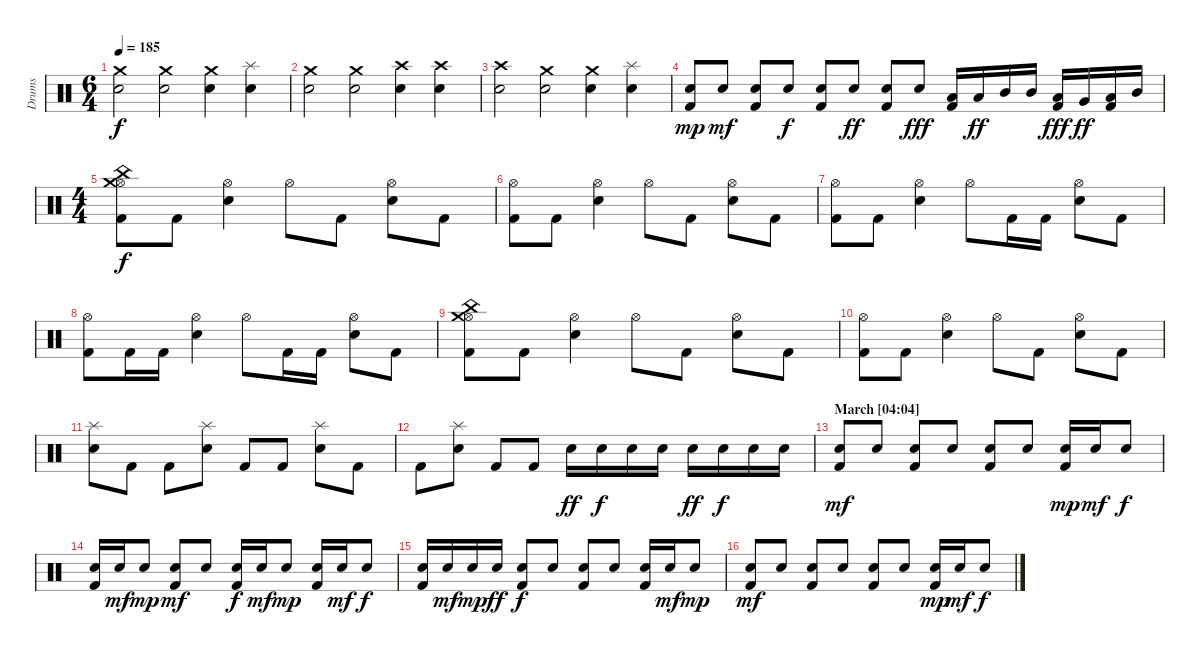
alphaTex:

\track ("Drums" "Drums") {instrument percussion}
\staff {score}
\articulation defaults
\ts (6 4)
\section ("" "")
\tempo 185
\clef neutral
\ks c
("Crash medium (hit)" "Electric Snare (hit)").2{dy f} ("Crash medium (hit)" "Electric Snare (hit)").2 ("Crash medium (hit)" "Electric Snare (hit)").4 ("Splash (hit)" "Electric Snare (hit)").4 |
("Crash medium (hit)" "Electric Snare (hit)").2 ("Crash medium (hit)" "Electric Snare (hit)").2 ("Crash high (hit)" "Electric Snare (hit)").4 ("Crash high (hit)" "Electric Snare (hit)").4 |
("Crash high (hit)" "Electric Snare (hit)").2 ("Crash medium (hit)" "Electric Snare (hit)").2 ("Crash medium (hit)" "Electric Snare (hit)").4 ("Splash (hit)" "Electric Snare (hit)").4 |
("Electric Snare (hit)" "Kick (hit) 2").8{dy mp} "Electric Snare (hit)".8{dy mf} ("Electric Snare (hit)" "Kick (hit) 2").8 "Electric Snare (hit)".8{dy f} ("Electric Snare (hit)" "Kick (hit) 2").8 "Electric Snare (hit)".8{dy ff} ("Electric Snare (hit)" "Kick (hit) 2").8 "Electric Snare (hit)".8{dy fff} ("Low Tom (hit)" "Kick (hit) 2").16 "Low Tom (hit)".16{dy ff} "Mid Tom (hit)".16 "Mid Tom (hit)".16 ("Low Tom (hit)" "Kick (hit) 2").16{dy fff} "Very Low Tom (hit)".16{dy ff} ("Low Tom (hit)" "Kick (hit) 2").16 "Mid Tom (hit)".16 |
\ts (4 4)
\section ("" "")
("Hi-Hat (open)" "Crash medium (hit)" "China (hit)" "Kick (hit) 2").8{dy f} "Kick (hit) 2".8 ("Hi-Hat (open)" "Electric Snare (hit)").4 "Hi-Hat (open)".8 "Kick (hit) 2".8 ("Hi-Hat (open)" "Electric Snare (hit)").8 "Kick (hit) 2".8 |
("Hi-Hat (open)" "Kick (hit) 2").8 "Kick (hit) 2".8 ("Hi-Hat (open)" "Electric Snare (hit)").4 "Hi-Hat (open)".8 "Kick (hit) 2".8 ("Hi-Hat (open)" "Electric Snare (hit)").8 "Kick (hit) 2".8 |
("Hi-Hat (open)" "Kick (hit) 2").8 "Kick (hit) 2".8 ("Hi-Hat (open)" "Electric Snare (hit)").4 "Hi-Hat (open)".8 "Kick (hit) 2".16 "Kick (hit) 2".16 ("Hi-Hat (open)" "Electric Snare (hit)").8 "Kick (hit) 2".8 |
("Hi-Hat (open)" "Kick (hit) 2").8 "Kick (hit) 2".16 "Kick (hit) 2".16 ("Hi-Hat (open)" "Electric Snare (hit)").4 "Hi-Hat (open)".8 "Kick (hit) 2".16 "Kick (hit) 2".16 ("Hi-Hat (open)" "Electric Snare (hit)").8 "Kick (hit) 2".8 |
\section ("" "")
("Hi-Hat (open)" "Crash medium (hit)" "China (hit)" "Kick (hit) 2").8 "Kick (hit) 2".8 ("Hi-Hat (open)" "Electric Snare (hit)").4 "Hi-Hat (open)".8 "Kick (hit) 2".8 ("Hi-Hat (open)" "Electric Snare (hit)").8 "Kick (hit) 2".8 |
("Hi-Hat (open)" "Kick (hit) 2").8 "Kick (hit) 2".8 ("Hi-Hat (open)" "Electric Snare (hit)").4 "Hi-Hat (open)".8 "Kick (hit) 2".8 ("Hi-Hat (open)" "Electric Snare (hit)").8 "Kick (hit) 2".8 |
("Splash (hit)" "Electric Snare (hit)").8 "Kick (hit) 2".8 "Kick (hit) 2".8 ("Splash (hit)" "Electric Snare (hit)").8 "Kick (hit) 2".8 "Kick (hit) 2".8 ("Splash (hit)" "Electric Snare (hit)").8 "Kick (hit) 2".8 |
"Kick (hit) 2".8 ("Splash (hit)" "Electric Snare (hit)").8 "Kick (hit) 2".8 "Kick (hit) 2".8 "Electric Snare (hit)".16{dy ff} "Electric Snare (hit)".16{dy f} "Electric Snare (hit)".16 "Electric Snare (hit)".16 "Electric Snare (hit)".16{dy ff} "Electric Snare (hit)".16{dy f} "Electric Snare (hit)".16 "Electric Snare (hit)".16 |
\section ("" "March [04:04]")
("Electric Snare (hit)" "Kick (hit) 2").8{dy mf} "Electric Snare (hit)".8 ("Electric Snare (hit)" "Kick (hit) 2").8 "Electric Snare (hit)".8 ("Electric Snare (hit)" "Kick (hit) 2").8 "Electric Snare (hit)".8 ("Electric Snare (hit)" "Kick (hit) 2").16{dy mp} "Electric Snare (hit)".16{dy mf} "Electric Snare (hit)".8{dy f} |
("Electric Snare (hit)" "Kick (hit) 2").16 "Electric Snare (hit)".16{dy mf} "Electric Snare (hit)".8{dy mp} ("Electric Snare (hit)" "Kick (hit) 2").8{dy mf} "Electric Snare (hit)".8 ("Electric Snare (hit)" "Kick (hit) 2").16{dy f} "Electric Snare (hit)".16{dy mf} "Electric Snare (hit)".8{dy mp} ("Electric Snare (hit)" "Kick (hit) 2").16 "Electric Snare (hit)".16{dy mf} "Electric Snare (hit)".8{dy f} |
("Electric Snare (hit)" "Kick (hit) 2").16 "Electric Snare (hit)".16{dy mf} "Snare (hit) 2".16{dy mp} "Electric Snare (hit)".16{dy ff} ("Electric Snare (hit)" "Kick (hit) 2").8{dy f} "Electric Snare (hit)".8 ("Electric Snare (hit)" "Kick (hit) 2").8 "Electric Snare (hit)".8 ("Electric Snare (hit)" "Kick (hit) 2").16 "Electric Snare (hit)".16{dy mf} "Electric Snare (hit)".8{dy mp} |
("Electric Snare (hit)" "Kick (hit) 2").8{dy mf} "Electric Snare (hit)".8 ("Electric Snare (hit)" "Kick (hit) 2").8 "Electric Snare (hit)".8 ("Electric Snare (hit)" "Kick (hit) 2").8 "Electric Snare (hit)".8 ("Electric Snare (hit)" "Kick (hit) 2").16{dy mp} "Electric Snare (hit)".16{dy mf} "Electric Snare (hit)".8{dy f}
